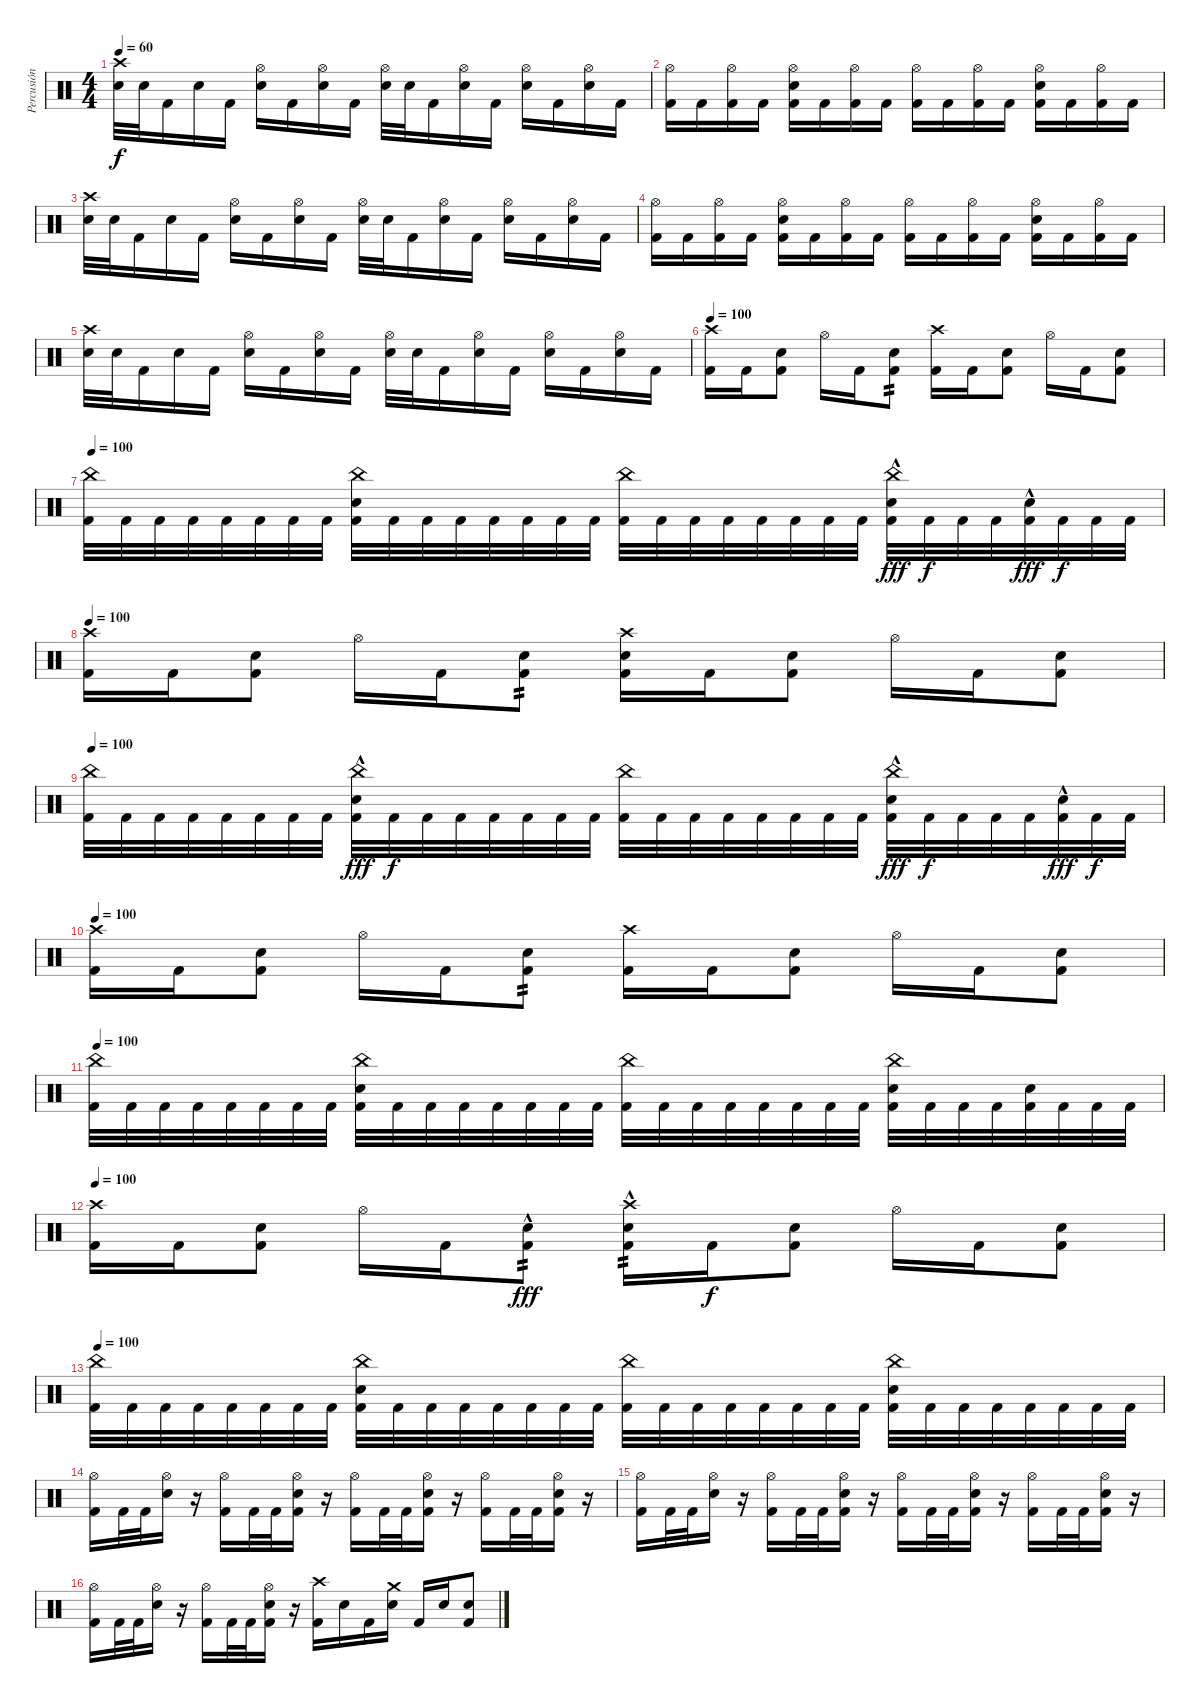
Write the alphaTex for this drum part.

\track ("Percusión" "Percusión") {instrument percussion}
\staff {score}
\articulation defaults
\ts (4 4)
\tempo 60
\clef neutral
\ks c
("Crash high (hit)" "Electric Snare (hit)").32{dy f} "Electric Snare (hit)".32 "Kick (hit) 2".16 "Electric Snare (hit)".16 "Kick (hit) 2".16 ("Hi-Hat (open)" "Electric Snare (hit)").16 "Kick (hit) 2".16 ("Hi-Hat (open)" "Electric Snare (hit)").16 "Kick (hit) 2".16 ("Hi-Hat (open)" "Electric Snare (hit)").32 "Electric Snare (hit)".32 "Kick (hit) 2".16 ("Hi-Hat (open)" "Electric Snare (hit)").16 "Kick (hit) 2".16 ("Hi-Hat (open)" "Electric Snare (hit)").16 "Kick (hit) 2".16 ("Hi-Hat (open)" "Electric Snare (hit)").16 "Kick (hit) 2".16 |
("Hi-Hat (open)" "Kick (hit) 2").16 "Kick (hit) 2".16 ("Hi-Hat (open)" "Kick (hit) 2").16 "Kick (hit) 2".16 ("Hi-Hat (open)" "Electric Snare (hit)" "Kick (hit) 2").16 "Kick (hit) 2".16 ("Hi-Hat (open)" "Kick (hit) 2").16 "Kick (hit) 2".16 ("Hi-Hat (open)" "Kick (hit) 2").16 "Kick (hit) 2".16 ("Hi-Hat (open)" "Kick (hit) 2").16 "Kick (hit) 2".16 ("Hi-Hat (open)" "Electric Snare (hit)" "Kick (hit) 2").16 "Kick (hit) 2".16 ("Hi-Hat (open)" "Kick (hit) 2").16 "Kick (hit) 2".16 |
("Crash high (hit)" "Electric Snare (hit)").32 "Electric Snare (hit)".32 "Kick (hit) 2".16 "Electric Snare (hit)".16 "Kick (hit) 2".16 ("Hi-Hat (open)" "Electric Snare (hit)").16 "Kick (hit) 2".16 ("Hi-Hat (open)" "Electric Snare (hit)").16 "Kick (hit) 2".16 ("Hi-Hat (open)" "Electric Snare (hit)").32 "Electric Snare (hit)".32 "Kick (hit) 2".16 ("Hi-Hat (open)" "Electric Snare (hit)").16 "Kick (hit) 2".16 ("Hi-Hat (open)" "Electric Snare (hit)").16 "Kick (hit) 2".16 ("Hi-Hat (open)" "Electric Snare (hit)").16 "Kick (hit) 2".16 |
("Hi-Hat (open)" "Kick (hit) 2").16 "Kick (hit) 2".16 ("Hi-Hat (open)" "Kick (hit) 2").16 "Kick (hit) 2".16 ("Hi-Hat (open)" "Electric Snare (hit)" "Kick (hit) 2").16 "Kick (hit) 2".16 ("Hi-Hat (open)" "Kick (hit) 2").16 "Kick (hit) 2".16 ("Hi-Hat (open)" "Kick (hit) 2").16 "Kick (hit) 2".16 ("Hi-Hat (open)" "Kick (hit) 2").16 "Kick (hit) 2".16 ("Hi-Hat (open)" "Electric Snare (hit)" "Kick (hit) 2").16 "Kick (hit) 2".16 ("Hi-Hat (open)" "Kick (hit) 2").16 "Kick (hit) 2".16 |
("Crash high (hit)" "Electric Snare (hit)").32 "Electric Snare (hit)".32 "Kick (hit) 2".16 "Electric Snare (hit)".16 "Kick (hit) 2".16 ("Hi-Hat (open)" "Electric Snare (hit)").16 "Kick (hit) 2".16 ("Hi-Hat (open)" "Electric Snare (hit)").16 "Kick (hit) 2".16 ("Hi-Hat (open)" "Electric Snare (hit)").32 "Electric Snare (hit)".32 "Kick (hit) 2".16 ("Hi-Hat (open)" "Electric Snare (hit)").16 "Kick (hit) 2".16 ("Hi-Hat (open)" "Electric Snare (hit)").16 "Kick (hit) 2".16 ("Hi-Hat (open)" "Electric Snare (hit)").16 "Kick (hit) 2".16 |
\tempo 100
("Crash high (hit)" "Kick (hit) 2").16 "Kick (hit) 2".16 ("Electric Snare (hit)" "Kick (hit) 2").8 "Hi-Hat (open)".16 "Kick (hit) 2".16 ("Electric Snare (hit)" "Kick (hit) 2").8{tp 2} ("Crash high (hit)" "Kick (hit) 2").16 "Kick (hit) 2".16 ("Electric Snare (hit)" "Kick (hit) 2").8 "Hi-Hat (open)".16 "Kick (hit) 2".16 ("Electric Snare (hit)" "Kick (hit) 2").8 |
\tempo 100
("China (hit)" "Kick (hit) 2").32 "Kick (hit) 2".32 "Kick (hit) 2".32 "Kick (hit) 2".32 "Kick (hit) 2".32 "Kick (hit) 2".32 "Kick (hit) 2".32 "Kick (hit) 2".32 ("China (hit)" "Electric Snare (hit)" "Kick (hit) 2").32 "Kick (hit) 2".32 "Kick (hit) 2".32 "Kick (hit) 2".32 "Kick (hit) 2".32 "Kick (hit) 2".32 "Kick (hit) 2".32 "Kick (hit) 2".32 ("China (hit)" "Kick (hit) 2").32 "Kick (hit) 2".32 "Kick (hit) 2".32 "Kick (hit) 2".32 "Kick (hit) 2".32 "Kick (hit) 2".32 "Kick (hit) 2".32 "Kick (hit) 2".32 ("China (hit)" "Electric Snare (hit)"{hac} "Kick (hit) 2").32{dy fff} "Kick (hit) 2".32{dy f} "Kick (hit) 2".32 "Kick (hit) 2".32 ("Electric Snare (hit)"{hac} "Kick (hit) 2").32{dy fff} "Kick (hit) 2".32{dy f} "Kick (hit) 2".32 "Kick (hit) 2".32 |
\tempo 100
("Crash high (hit)" "Kick (hit) 2").16 "Kick (hit) 2".16 ("Electric Snare (hit)" "Kick (hit) 2").8 "Hi-Hat (open)".16 "Kick (hit) 2".16 ("Electric Snare (hit)" "Kick (hit) 2").8{tp 2} ("Crash high (hit)" "Electric Snare (hit)" "Kick (hit) 2").16 "Kick (hit) 2".16 ("Electric Snare (hit)" "Kick (hit) 2").8 "Hi-Hat (open)".16 "Kick (hit) 2".16 ("Electric Snare (hit)" "Kick (hit) 2").8 |
\tempo 100
("China (hit)" "Kick (hit) 2").32 "Kick (hit) 2".32 "Kick (hit) 2".32 "Kick (hit) 2".32 "Kick (hit) 2".32 "Kick (hit) 2".32 "Kick (hit) 2".32 "Kick (hit) 2".32 ("China (hit)" "Electric Snare (hit)"{hac} "Kick (hit) 2").32{dy fff} "Kick (hit) 2".32{dy f} "Kick (hit) 2".32 "Kick (hit) 2".32 "Kick (hit) 2".32 "Kick (hit) 2".32 "Kick (hit) 2".32 "Kick (hit) 2".32 ("China (hit)" "Kick (hit) 2").32 "Kick (hit) 2".32 "Kick (hit) 2".32 "Kick (hit) 2".32 "Kick (hit) 2".32 "Kick (hit) 2".32 "Kick (hit) 2".32 "Kick (hit) 2".32 ("China (hit)" "Electric Snare (hit)"{hac} "Kick (hit) 2").32{dy fff} "Kick (hit) 2".32{dy f} "Kick (hit) 2".32 "Kick (hit) 2".32 "Kick (hit) 2".32 ("Electric Snare (hit)"{hac} "Kick (hit) 2").32{dy fff} "Kick (hit) 2".32{dy f} "Kick (hit) 2".32 |
\tempo 100
("Crash high (hit)" "Kick (hit) 2").16 "Kick (hit) 2".16 ("Electric Snare (hit)" "Kick (hit) 2").8 "Hi-Hat (open)".16 "Kick (hit) 2".16 ("Electric Snare (hit)" "Kick (hit) 2").8{tp 2} ("Crash high (hit)" "Kick (hit) 2").16 "Kick (hit) 2".16 ("Electric Snare (hit)" "Kick (hit) 2").8 "Hi-Hat (open)".16 "Kick (hit) 2".16 ("Electric Snare (hit)" "Kick (hit) 2").8 |
\tempo 100
("China (hit)" "Kick (hit) 2").32 "Kick (hit) 2".32 "Kick (hit) 2".32 "Kick (hit) 2".32 "Kick (hit) 2".32 "Kick (hit) 2".32 "Kick (hit) 2".32 "Kick (hit) 2".32 ("China (hit)" "Electric Snare (hit)" "Kick (hit) 2").32 "Kick (hit) 2".32 "Kick (hit) 2".32 "Kick (hit) 2".32 "Kick (hit) 2".32 "Kick (hit) 2".32 "Kick (hit) 2".32 "Kick (hit) 2".32 ("China (hit)" "Kick (hit) 2").32 "Kick (hit) 2".32 "Kick (hit) 2".32 "Kick (hit) 2".32 "Kick (hit) 2".32 "Kick (hit) 2".32 "Kick (hit) 2".32 "Kick (hit) 2".32 ("China (hit)" "Electric Snare (hit)" "Kick (hit) 2").32 "Kick (hit) 2".32 "Kick (hit) 2".32 "Kick (hit) 2".32 ("Electric Snare (hit)" "Kick (hit) 2").32 "Kick (hit) 2".32 "Kick (hit) 2".32 "Kick (hit) 2".32 |
\tempo 100
("Crash high (hit)" "Kick (hit) 2").16 "Kick (hit) 2".16 ("Electric Snare (hit)" "Kick (hit) 2").8 "Hi-Hat (open)".16 "Kick (hit) 2".16 ("Electric Snare (hit)"{hac} "Kick (hit) 2").8{tp 2 dy fff} ("Crash high (hit)" "Electric Snare (hit)"{hac} "Kick (hit) 2").16{tp 2} "Kick (hit) 2".16{dy f} ("Electric Snare (hit)" "Kick (hit) 2").8 "Hi-Hat (open)".16 "Kick (hit) 2".16 ("Electric Snare (hit)" "Kick (hit) 2").8 |
\tempo 100
("China (hit)" "Kick (hit) 2").32 "Kick (hit) 2".32 "Kick (hit) 2".32 "Kick (hit) 2".32 "Kick (hit) 2".32 "Kick (hit) 2".32 "Kick (hit) 2".32 "Kick (hit) 2".32 ("China (hit)" "Electric Snare (hit)" "Kick (hit) 2").32 "Kick (hit) 2".32 "Kick (hit) 2".32 "Kick (hit) 2".32 "Kick (hit) 2".32 "Kick (hit) 2".32 "Kick (hit) 2".32 "Kick (hit) 2".32 ("China (hit)" "Kick (hit) 2").32 "Kick (hit) 2".32 "Kick (hit) 2".32 "Kick (hit) 2".32 "Kick (hit) 2".32 "Kick (hit) 2".32 "Kick (hit) 2".32 "Kick (hit) 2".32 ("China (hit)" "Electric Snare (hit)" "Kick (hit) 2").32 "Kick (hit) 2".32 "Kick (hit) 2".32 "Kick (hit) 2".32 "Kick (hit) 2".32 "Kick (hit) 2".32 "Kick (hit) 2".32 "Kick (hit) 2".32 |
("Hi-Hat (open)" "Kick (hit) 2").16 "Kick (hit) 2".32 "Kick (hit) 2".32 ("Hi-Hat (open)" "Electric Snare (hit)").16 r.16 ("Hi-Hat (open)" "Kick (hit) 2").16 "Kick (hit) 2".32 "Kick (hit) 2".32 ("Hi-Hat (open)" "Electric Snare (hit)" "Kick (hit) 2").16 r.16 ("Hi-Hat (open)" "Kick (hit) 2").16 "Kick (hit) 2".32 "Kick (hit) 2".32 ("Hi-Hat (open)" "Electric Snare (hit)" "Kick (hit) 2").16 r.16 ("Hi-Hat (open)" "Kick (hit) 2").16 "Kick (hit) 2".32 "Kick (hit) 2".32 ("Hi-Hat (open)" "Electric Snare (hit)" "Kick (hit) 2").16 r.16 |
("Hi-Hat (open)" "Kick (hit) 2").16 "Kick (hit) 2".32 "Kick (hit) 2".32 ("Hi-Hat (open)" "Electric Snare (hit)").16 r.16 ("Hi-Hat (open)" "Kick (hit) 2").16 "Kick (hit) 2".32 "Kick (hit) 2".32 ("Hi-Hat (open)" "Electric Snare (hit)" "Kick (hit) 2").16 r.16 ("Hi-Hat (open)" "Kick (hit) 2").16 "Kick (hit) 2".32 "Kick (hit) 2".32 ("Hi-Hat (open)" "Electric Snare (hit)" "Kick (hit) 2").16 r.16 ("Hi-Hat (open)" "Kick (hit) 2").16 "Kick (hit) 2".32 "Kick (hit) 2".32 ("Hi-Hat (open)" "Electric Snare (hit)" "Kick (hit) 2").16 r.16 |
("Hi-Hat (open)" "Kick (hit) 2").16 "Kick (hit) 2".32 "Kick (hit) 2".32 ("Hi-Hat (open)" "Electric Snare (hit)").16 r.16 ("Hi-Hat (open)" "Kick (hit) 2").16 "Kick (hit) 2".32 "Kick (hit) 2".32 ("Hi-Hat (open)" "Electric Snare (hit)" "Kick (hit) 2").16 r.16 ("Crash high (hit)" "Kick (hit) 2").16 "Electric Snare (hit)".16 "Kick (hit) 2".16 ("Crash medium (hit)" "Electric Snare (hit)").16 "Kick (hit) 2".16 "Electric Snare (hit)".16 ("Electric Snare (hit)" "Kick (hit) 2").8
